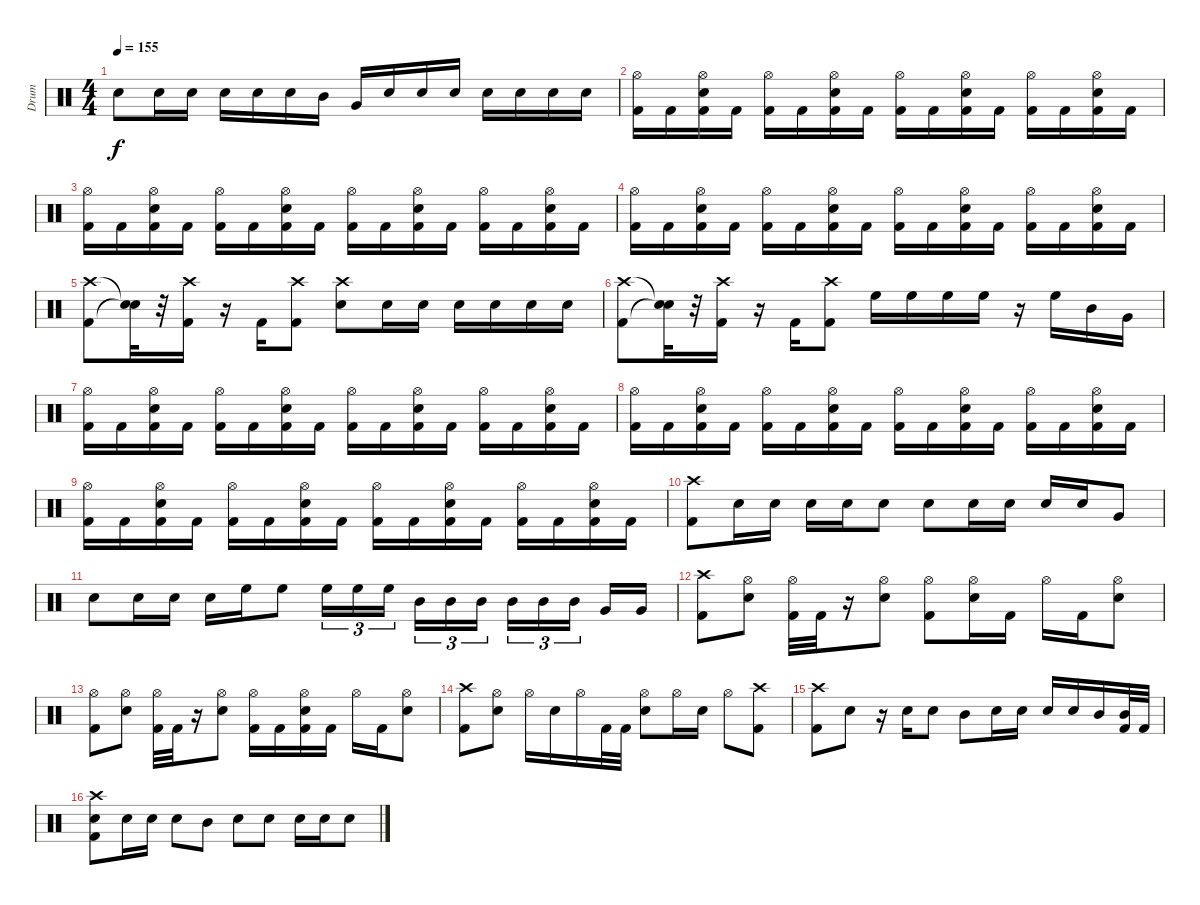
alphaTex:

\track ("Drum" "Drum") {instrument percussion}
\staff {score}
\articulation defaults
\ts (4 4)
\tempo 155
\clef neutral
\ks c "Snare (hit) 2".8{dy f} "Snare (hit) 2".16 "Snare (hit) 2".16 "Snare (hit) 2".16 "Snare (hit) 2".16 "Snare (hit) 2".16 "Mid Tom (hit)".16 "Very Low Tom (hit)".16 "Snare (hit) 2".16 "Snare (hit) 2".16 "Snare (hit) 2".16 "Snare (hit) 2".16 "Snare (hit) 2".16 "Snare (hit) 2".16 "Snare (hit) 2".16
|
("Kick (hit) 2" "Hi-Hat (open)").16 "Kick (hit) 2".16 ("Kick (hit) 2" "Snare (hit) 2" "Hi-Hat (open)").16 "Kick (hit) 2".16 ("Kick (hit) 2" "Hi-Hat (open)").16 "Kick (hit) 2".16 ("Kick (hit) 2" "Snare (hit) 2" "Hi-Hat (open)").16 "Kick (hit) 2".16 ("Kick (hit) 2" "Hi-Hat (open)").16 "Kick (hit) 2".16 ("Kick (hit) 2" "Snare (hit) 2" "Hi-Hat (open)").16 "Kick (hit) 2".16 ("Kick (hit) 2" "Hi-Hat (open)").16 "Kick (hit) 2".16 ("Kick (hit) 2" "Snare (hit) 2" "Hi-Hat (open)").16 "Kick (hit) 2".16 |
("Kick (hit) 2" "Hi-Hat (open)").16 "Kick (hit) 2".16 ("Kick (hit) 2" "Snare (hit) 2" "Hi-Hat (open)").16 "Kick (hit) 2".16 ("Kick (hit) 2" "Hi-Hat (open)").16 "Kick (hit) 2".16 ("Kick (hit) 2" "Snare (hit) 2" "Hi-Hat (open)").16 "Kick (hit) 2".16 ("Kick (hit) 2" "Hi-Hat (open)").16 "Kick (hit) 2".16 ("Kick (hit) 2" "Snare (hit) 2" "Hi-Hat (open)").16 "Kick (hit) 2".16 ("Kick (hit) 2" "Hi-Hat (open)").16 "Kick (hit) 2".16 ("Kick (hit) 2" "Snare (hit) 2" "Hi-Hat (open)").16 "Kick (hit) 2".16 |
("Kick (hit) 2" "Hi-Hat (open)").16 "Kick (hit) 2".16 ("Kick (hit) 2" "Snare (hit) 2" "Hi-Hat (open)").16 "Kick (hit) 2".16 ("Kick (hit) 2" "Hi-Hat (open)").16 "Kick (hit) 2".16 ("Kick (hit) 2" "Snare (hit) 2" "Hi-Hat (open)").16 "Kick (hit) 2".16 ("Kick (hit) 2" "Hi-Hat (open)").16 "Kick (hit) 2".16 ("Kick (hit) 2" "Snare (hit) 2" "Hi-Hat (open)").16 "Kick (hit) 2".16 ("Kick (hit) 2" "Hi-Hat (open)").16 "Kick (hit) 2".16 ("Kick (hit) 2" "Snare (hit) 2" "Hi-Hat (open)").16 "Kick (hit) 2".16 |
("Kick (hit) 2" "Crash high (hit)").8 ("Snare (hit)"{t} "Snare (hit)"{t}).32 r.32 ("Crash high (hit)" "Kick (hit) 2").16 r.16 "Kick (hit) 2".16 ("Kick (hit) 2" "Crash high (hit)").8 ("Crash high (hit)" "Snare (hit) 2").8 "Snare (hit) 2".16 "Snare (hit) 2".16 "Snare (hit) 2".16 "Snare (hit) 2".16 "Snare (hit) 2".16 "Snare (hit) 2".16 |
("Kick (hit) 2" "Crash high (hit)").8 ("Snare (hit)"{t} "Snare (hit)"{t}).32 r.32 ("Crash high (hit)" "Kick (hit) 2").16 r.16 "Kick (hit) 2".16 ("Kick (hit) 2" "Crash high (hit)").8 "High Floor Tom (hit)".16 "High Floor Tom (hit)".16 "High Floor Tom (hit)".16 "High Floor Tom (hit)".16 r.16 "High Floor Tom (hit)".16 "Mid Tom (hit)".16 "Very Low Tom (hit)".16 |
("Kick (hit) 2" "Hi-Hat (open)").16 "Kick (hit) 2".16 ("Kick (hit) 2" "Snare (hit) 2" "Hi-Hat (open)").16 "Kick (hit) 2".16 ("Kick (hit) 2" "Hi-Hat (open)").16 "Kick (hit) 2".16 ("Kick (hit) 2" "Snare (hit) 2" "Hi-Hat (open)").16 "Kick (hit) 2".16 ("Kick (hit) 2" "Hi-Hat (open)").16 "Kick (hit) 2".16 ("Kick (hit) 2" "Snare (hit) 2" "Hi-Hat (open)").16 "Kick (hit) 2".16 ("Kick (hit) 2" "Hi-Hat (open)").16 "Kick (hit) 2".16 ("Kick (hit) 2" "Snare (hit) 2" "Hi-Hat (open)").16 "Kick (hit) 2".16 |
("Kick (hit) 2" "Hi-Hat (open)").16 "Kick (hit) 2".16 ("Kick (hit) 2" "Snare (hit) 2" "Hi-Hat (open)").16 "Kick (hit) 2".16 ("Kick (hit) 2" "Hi-Hat (open)").16 "Kick (hit) 2".16 ("Kick (hit) 2" "Snare (hit) 2" "Hi-Hat (open)").16 "Kick (hit) 2".16 ("Kick (hit) 2" "Hi-Hat (open)").16 "Kick (hit) 2".16 ("Kick (hit) 2" "Snare (hit) 2" "Hi-Hat (open)").16 "Kick (hit) 2".16 ("Kick (hit) 2" "Hi-Hat (open)").16 "Kick (hit) 2".16 ("Kick (hit) 2" "Snare (hit) 2" "Hi-Hat (open)").16 "Kick (hit) 2".16 |
("Kick (hit) 2" "Hi-Hat (open)").16 "Kick (hit) 2".16 ("Kick (hit) 2" "Snare (hit) 2" "Hi-Hat (open)").16 "Kick (hit) 2".16 ("Kick (hit) 2" "Hi-Hat (open)").16 "Kick (hit) 2".16 ("Kick (hit) 2" "Snare (hit) 2" "Hi-Hat (open)").16 "Kick (hit) 2".16 ("Kick (hit) 2" "Hi-Hat (open)").16 "Kick (hit) 2".16 ("Kick (hit) 2" "Snare (hit) 2" "Hi-Hat (open)").16 "Kick (hit) 2".16 ("Kick (hit) 2" "Hi-Hat (open)").16 "Kick (hit) 2".16 ("Kick (hit) 2" "Snare (hit) 2" "Hi-Hat (open)").16 "Kick (hit) 2".16 |
("Kick (hit) 2" "Crash high (hit)").8 "Snare (hit) 2".16 "Snare (hit) 2".16 "Snare (hit) 2".16 "Snare (hit) 2".16 "Snare (hit) 2".8 "Snare (hit) 2".8 "Snare (hit) 2".16 "Snare (hit) 2".16 "Snare (hit) 2".16 "Snare (hit) 2".16 "Very Low Tom (hit)".8 |
"Snare (hit) 2".8 "Snare (hit) 2".16 "Snare (hit) 2".16 "Snare (hit) 2".16 "High Floor Tom (hit)".16 "High Floor Tom (hit)".8 "High Floor Tom (hit)".16{tu (3 2)} "High Floor Tom (hit)".16{tu (3 2)} "High Floor Tom (hit)".16{tu (3 2) beam splitsecondary} "Mid Tom (hit)".16{tu (3 2)} "Mid Tom (hit)".16{tu (3 2)} "Mid Tom (hit)".16{tu (3 2)} "Mid Tom (hit)".16{tu (3 2)} "Mid Tom (hit)".16{tu (3 2)} "Mid Tom (hit)".16{tu (3 2) beam splitsecondary} "Very Low Tom (hit)".16 "Very Low Tom (hit)".16 |
("Kick (hit) 2" "Crash high (hit)").8 ("Hi-Hat (open)" "Snare (hit) 2").8 ("Hi-Hat (open)" "Kick (hit) 2").32 "Kick (hit) 2".32 r.16 ("Hi-Hat (open)" "Snare (hit) 2").8 ("Hi-Hat (open)" "Kick (hit) 2").8 ("Hi-Hat (open)" "Snare (hit) 2").16 "Kick (hit) 2".16 "Hi-Hat (open)".16 "Kick (hit) 2".16 ("Hi-Hat (open)" "Snare (hit) 2").8 |
("Kick (hit) 2" "Hi-Hat (open)").8 ("Hi-Hat (open)" "Snare (hit) 2").8 ("Hi-Hat (open)" "Kick (hit) 2").32 "Kick (hit) 2".32 r.16 ("Hi-Hat (open)" "Snare (hit) 2").8 ("Hi-Hat (open)" "Kick (hit) 2").16 "Kick (hit) 2".16 ("Hi-Hat (open)" "Snare (hit) 2" "Kick (hit) 2").16 "Kick (hit) 2".16 "Hi-Hat (open)".16 "Kick (hit) 2".16 ("Hi-Hat (open)" "Snare (hit) 2").8 |
("Kick (hit) 2" "Crash high (hit)").8 ("Snare (hit) 2" "Hi-Hat (open)").8 "Hi-Hat (open)".16 "Snare (hit) 2".16 "Hi-Hat (open)".16 "Kick (hit) 2".32 "Kick (hit) 2".32 ("Snare (hit) 2" "Hi-Hat (open)").8 "Hi-Hat (open)".16 "Snare (hit) 2".16 "Hi-Hat (open)".8 ("Kick (hit) 2" "Crash high (hit)").8 |
("Crash high (hit)" "Kick (hit) 2").8 "Snare (hit) 2".8 r.16 "Snare (hit) 2".16 "Snare (hit) 2".8 "Mid Tom (hit)".8 "Snare (hit) 2".16 "Snare (hit) 2".16 "Snare (hit) 2".16 "Snare (hit) 2".16 "Mid Tom (hit)".16 ("Mid Tom (hit)" "Kick (hit) 2").32 "Kick (hit) 2".32 |
("Kick (hit) 2" "Crash high (hit)" "Snare (hit) 2").8 "Snare (hit) 2".16 "Snare (hit) 2".16 "Snare (hit) 2".8 "Mid Tom (hit)".8 "Snare (hit) 2".8 "Snare (hit) 2".8 "Snare (hit) 2".16 "Snare (hit) 2".16 "Snare (hit) 2".8
